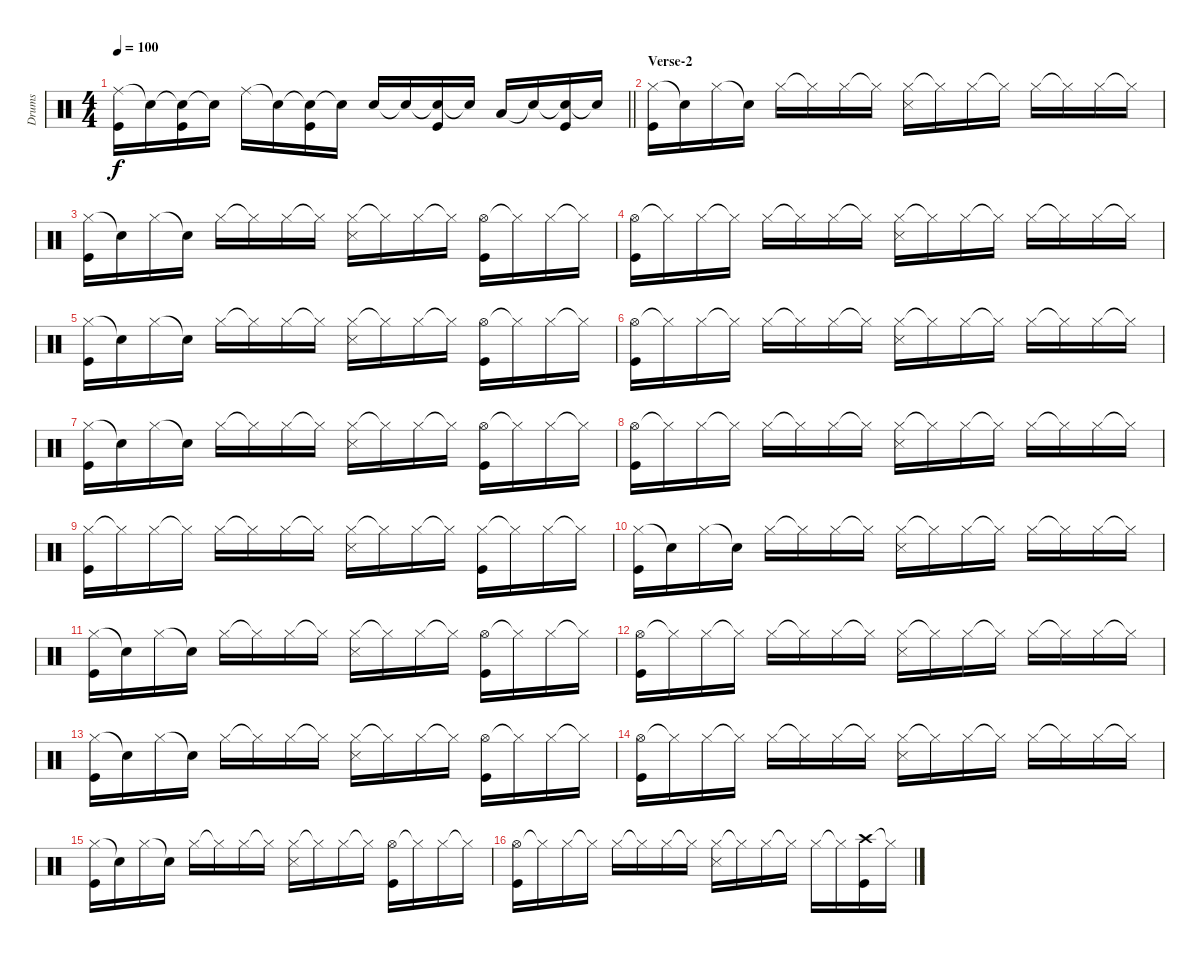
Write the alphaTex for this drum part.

\track ("Drums" "Drums") {instrument percussion}
\staff {score}
\articulation defaults
\ts (4 4)
\tempo 100
\clef neutral
\barLineRight lightlight
\ks c
("Ride (middle)" "Kick (hit)").16{dy f} "Snare (hit)"{t}.16 ("Snare (hit)"{t} "Kick (hit)").16 "Snare (hit)"{t}.16 "Ride (middle)".16 "Snare (hit)"{t}.16 ("Snare (hit)"{t} "Kick (hit)").16 "Snare (hit)"{t}.16 "Electric Snare (hit)".16 "Snare (hit)"{t}.16 ("Snare (hit)"{t} "Kick (hit)").16 "Snare (hit)"{t}.16 "Low Tom (hit)".16 "Snare (hit)"{t}.16 ("Snare (hit)"{t} "Kick (hit)").16 "Snare (hit)"{t}.16 |
\section ("" "Verse-2")
("Hi-Hat (closed)" "Kick (hit)").16 "Snare (hit)"{t}.16 "Hi-Hat (closed)".16 "Snare (hit)"{t}.16 "Hi-Hat (closed)".16 "Hi-Hat (closed)"{t}.16 "Hi-Hat (closed)".16 "Hi-Hat (closed)"{t}.16 ("Hi-Hat (closed)" "Snare (side stick) 3").16 "Hi-Hat (closed)"{t}.16 "Hi-Hat (closed)".16 "Hi-Hat (closed)"{t}.16 "Hi-Hat (closed)".16 "Hi-Hat (closed)"{t}.16 "Hi-Hat (closed)".16 "Hi-Hat (closed)"{t}.16 |
("Hi-Hat (closed)" "Kick (hit)").16 "Snare (hit)"{t}.16 "Hi-Hat (closed)".16 "Snare (hit)"{t}.16 "Hi-Hat (closed)".16 "Hi-Hat (closed)"{t}.16 "Hi-Hat (closed)".16 "Hi-Hat (closed)"{t}.16 ("Hi-Hat (closed)" "Snare (side stick) 3").16 "Hi-Hat (closed)"{t}.16 "Hi-Hat (closed)".16 "Hi-Hat (closed)"{t}.16 ("Hi-Hat (open)" "Kick (hit)").16 "Hi-Hat (closed)"{t}.16 "Hi-Hat (closed)".16 "Hi-Hat (closed)"{t}.16 |
("Hi-Hat (open)" "Kick (hit)").16 "Hi-Hat (closed)"{t}.16 "Hi-Hat (closed)".16 "Hi-Hat (closed)"{t}.16 "Hi-Hat (closed)".16 "Hi-Hat (closed)"{t}.16 "Hi-Hat (closed)".16 "Hi-Hat (closed)"{t}.16 ("Hi-Hat (closed)" "Snare (side stick) 3").16 "Hi-Hat (closed)"{t}.16 "Hi-Hat (closed)".16 "Hi-Hat (closed)"{t}.16 "Hi-Hat (closed)".16 "Hi-Hat (closed)"{t}.16 "Hi-Hat (closed)".16 "Hi-Hat (closed)"{t}.16 |
("Hi-Hat (closed)" "Kick (hit)").16 "Snare (hit)"{t}.16 "Hi-Hat (closed)".16 "Snare (hit)"{t}.16 "Hi-Hat (closed)".16 "Hi-Hat (closed)"{t}.16 "Hi-Hat (closed)".16 "Hi-Hat (closed)"{t}.16 ("Hi-Hat (closed)" "Snare (side stick) 3").16 "Hi-Hat (closed)"{t}.16 "Hi-Hat (closed)".16 "Hi-Hat (closed)"{t}.16 ("Hi-Hat (open)" "Kick (hit)").16 "Hi-Hat (closed)"{t}.16 "Hi-Hat (closed)".16 "Hi-Hat (closed)"{t}.16 |
("Hi-Hat (open)" "Kick (hit)").16 "Hi-Hat (closed)"{t}.16 "Hi-Hat (closed)".16 "Hi-Hat (closed)"{t}.16 "Hi-Hat (closed)".16 "Hi-Hat (closed)"{t}.16 "Hi-Hat (closed)".16 "Hi-Hat (closed)"{t}.16 ("Hi-Hat (closed)" "Snare (side stick) 3").16 "Hi-Hat (closed)"{t}.16 "Hi-Hat (closed)".16 "Hi-Hat (closed)"{t}.16 "Hi-Hat (closed)".16 "Hi-Hat (closed)"{t}.16 "Hi-Hat (closed)".16 "Hi-Hat (closed)"{t}.16 |
("Hi-Hat (closed)" "Kick (hit)").16 "Snare (hit)"{t}.16 "Hi-Hat (closed)".16 "Snare (hit)"{t}.16 "Hi-Hat (closed)".16 "Hi-Hat (closed)"{t}.16 "Hi-Hat (closed)".16 "Hi-Hat (closed)"{t}.16 ("Hi-Hat (closed)" "Snare (side stick) 3").16 "Hi-Hat (closed)"{t}.16 "Hi-Hat (closed)".16 "Hi-Hat (closed)"{t}.16 ("Hi-Hat (open)" "Kick (hit)").16 "Hi-Hat (closed)"{t}.16 "Hi-Hat (closed)".16 "Hi-Hat (closed)"{t}.16 |
("Hi-Hat (open)" "Kick (hit)").16 "Hi-Hat (closed)"{t}.16 "Hi-Hat (closed)".16 "Hi-Hat (closed)"{t}.16 "Hi-Hat (closed)".16 "Hi-Hat (closed)"{t}.16 "Hi-Hat (closed)".16 "Hi-Hat (closed)"{t}.16 ("Hi-Hat (closed)" "Snare (side stick) 3").16 "Hi-Hat (closed)"{t}.16 "Hi-Hat (closed)".16 "Hi-Hat (closed)"{t}.16 "Hi-Hat (closed)".16 "Hi-Hat (closed)"{t}.16 "Hi-Hat (closed)".16 "Hi-Hat (closed)"{t}.16 |
("Hi-Hat (closed)" "Kick (hit)").16 "Hi-Hat (closed)"{t}.16 "Hi-Hat (closed)".16 "Hi-Hat (closed)"{t}.16 "Hi-Hat (closed)".16 "Hi-Hat (closed)"{t}.16 "Hi-Hat (closed)".16 "Hi-Hat (closed)"{t}.16 ("Hi-Hat (closed)" "Snare (side stick) 3").16 "Hi-Hat (closed)"{t}.16 "Hi-Hat (closed)".16 "Hi-Hat (closed)"{t}.16 ("Hi-Hat (closed)" "Kick (hit)").16 "Hi-Hat (closed)"{t}.16 "Hi-Hat (closed)".16 "Hi-Hat (closed)"{t}.16 |
("Hi-Hat (closed)" "Kick (hit)").16 "Snare (hit)"{t}.16 "Hi-Hat (closed)".16 "Snare (hit)"{t}.16 "Hi-Hat (closed)".16 "Hi-Hat (closed)"{t}.16 "Hi-Hat (closed)".16 "Hi-Hat (closed)"{t}.16 ("Hi-Hat (closed)" "Snare (side stick) 3").16 "Hi-Hat (closed)"{t}.16 "Hi-Hat (closed)".16 "Hi-Hat (closed)"{t}.16 "Hi-Hat (closed)".16 "Hi-Hat (closed)"{t}.16 "Hi-Hat (closed)".16 "Hi-Hat (closed)"{t}.16 |
("Hi-Hat (closed)" "Kick (hit)").16 "Snare (hit)"{t}.16 "Hi-Hat (closed)".16 "Snare (hit)"{t}.16 "Hi-Hat (closed)".16 "Hi-Hat (closed)"{t}.16 "Hi-Hat (closed)".16 "Hi-Hat (closed)"{t}.16 ("Hi-Hat (closed)" "Snare (side stick) 3").16 "Hi-Hat (closed)"{t}.16 "Hi-Hat (closed)".16 "Hi-Hat (closed)"{t}.16 ("Hi-Hat (open)" "Kick (hit)").16 "Hi-Hat (closed)"{t}.16 "Hi-Hat (closed)".16 "Hi-Hat (closed)"{t}.16 |
("Hi-Hat (open)" "Kick (hit)").16 "Hi-Hat (closed)"{t}.16 "Hi-Hat (closed)".16 "Hi-Hat (closed)"{t}.16 "Hi-Hat (closed)".16 "Hi-Hat (closed)"{t}.16 "Hi-Hat (closed)".16 "Hi-Hat (closed)"{t}.16 ("Hi-Hat (closed)" "Snare (side stick) 3").16 "Hi-Hat (closed)"{t}.16 "Hi-Hat (closed)".16 "Hi-Hat (closed)"{t}.16 "Hi-Hat (closed)".16 "Hi-Hat (closed)"{t}.16 "Hi-Hat (closed)".16 "Hi-Hat (closed)"{t}.16 |
("Hi-Hat (closed)" "Kick (hit)").16 "Snare (hit)"{t}.16 "Hi-Hat (closed)".16 "Snare (hit)"{t}.16 "Hi-Hat (closed)".16 "Hi-Hat (closed)"{t}.16 "Hi-Hat (closed)".16 "Hi-Hat (closed)"{t}.16 ("Hi-Hat (closed)" "Snare (side stick) 3").16 "Hi-Hat (closed)"{t}.16 "Hi-Hat (closed)".16 "Hi-Hat (closed)"{t}.16 ("Hi-Hat (open)" "Kick (hit)").16 "Hi-Hat (closed)"{t}.16 "Hi-Hat (closed)".16 "Hi-Hat (closed)"{t}.16 |
("Hi-Hat (open)" "Kick (hit)").16 "Hi-Hat (closed)"{t}.16 "Hi-Hat (closed)".16 "Hi-Hat (closed)"{t}.16 "Hi-Hat (closed)".16 "Hi-Hat (closed)"{t}.16 "Hi-Hat (closed)".16 "Hi-Hat (closed)"{t}.16 ("Hi-Hat (closed)" "Snare (side stick) 3").16 "Hi-Hat (closed)"{t}.16 "Hi-Hat (closed)".16 "Hi-Hat (closed)"{t}.16 "Hi-Hat (closed)".16 "Hi-Hat (closed)"{t}.16 "Hi-Hat (closed)".16 "Hi-Hat (closed)"{t}.16 |
("Hi-Hat (closed)" "Kick (hit)").16 "Snare (hit)"{t}.16 "Hi-Hat (closed)".16 "Snare (hit)"{t}.16 "Hi-Hat (closed)".16 "Hi-Hat (closed)"{t}.16 "Hi-Hat (closed)".16 "Hi-Hat (closed)"{t}.16 ("Hi-Hat (closed)" "Snare (side stick) 3").16 "Hi-Hat (closed)"{t}.16 "Hi-Hat (closed)".16 "Hi-Hat (closed)"{t}.16 ("Hi-Hat (open)" "Kick (hit)").16 "Hi-Hat (closed)"{t}.16 "Hi-Hat (closed)".16 "Hi-Hat (closed)"{t}.16 |
("Hi-Hat (open)" "Kick (hit)").16 "Hi-Hat (closed)"{t}.16 "Hi-Hat (closed)".16 "Hi-Hat (closed)"{t}.16 "Hi-Hat (closed)".16 "Hi-Hat (closed)"{t}.16 "Hi-Hat (closed)".16 "Hi-Hat (closed)"{t}.16 ("Hi-Hat (closed)" "Snare (side stick) 3").16 "Hi-Hat (closed)"{t}.16 "Hi-Hat (closed)".16 "Hi-Hat (closed)"{t}.16 "Hi-Hat (closed)".16 "Hi-Hat (closed)"{t}.16 ("Crash high (hit)" "Kick (hit)").16 "Hi-Hat (closed)"{t}.16
